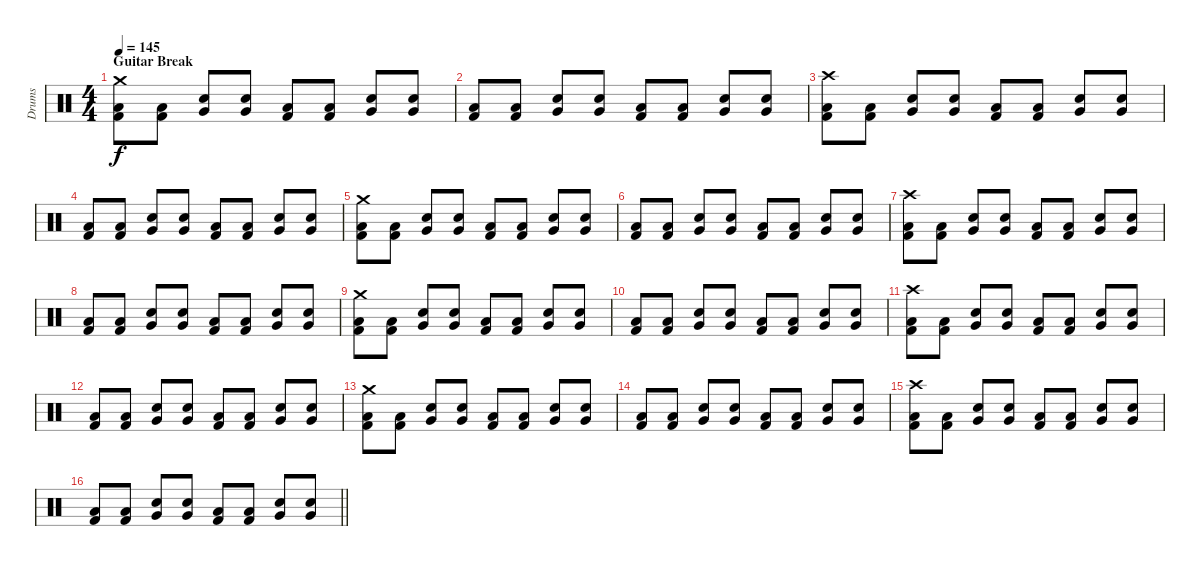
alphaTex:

\track ("Drums" "Drums") {instrument percussion}
\staff {score}
\articulation defaults
\ts (4 4)
\section ("" "Guitar Break")
\tempo 145
\clef neutral
\ks c
("Crash medium (hit)" "Kick (hit) 2" "Low Floor Tom (hit)").8{dy f} ("Kick (hit) 2" "Low Floor Tom (hit)").8 ("Snare (hit) 2" "Very Low Tom (hit)").8 ("Snare (hit) 2" "Very Low Tom (hit)").8 ("Kick (hit) 2" "Low Floor Tom (hit)").8 ("Kick (hit) 2" "Low Floor Tom (hit)").8 ("Snare (hit) 2" "Very Low Tom (hit)").8 ("Snare (hit) 2" "Very Low Tom (hit)").8 |
("Kick (hit) 2" "Low Floor Tom (hit)").8 ("Kick (hit) 2" "Low Floor Tom (hit)").8 ("Snare (hit) 2" "Very Low Tom (hit)").8 ("Snare (hit) 2" "Very Low Tom (hit)").8 ("Kick (hit) 2" "Low Floor Tom (hit)").8 ("Kick (hit) 2" "Low Floor Tom (hit)").8 ("Snare (hit) 2" "Very Low Tom (hit)").8 ("Snare (hit) 2" "Very Low Tom (hit)").8 |
("Crash high (hit)" "Kick (hit) 2" "Low Floor Tom (hit)").8 ("Kick (hit) 2" "Low Floor Tom (hit)").8 ("Snare (hit) 2" "Very Low Tom (hit)").8 ("Snare (hit) 2" "Very Low Tom (hit)").8 ("Kick (hit) 2" "Low Floor Tom (hit)").8 ("Kick (hit) 2" "Low Floor Tom (hit)").8 ("Snare (hit) 2" "Very Low Tom (hit)").8 ("Snare (hit) 2" "Very Low Tom (hit)").8 |
("Kick (hit) 2" "Low Floor Tom (hit)").8 ("Kick (hit) 2" "Low Floor Tom (hit)").8 ("Snare (hit) 2" "Very Low Tom (hit)").8 ("Snare (hit) 2" "Very Low Tom (hit)").8 ("Kick (hit) 2" "Low Floor Tom (hit)").8 ("Kick (hit) 2" "Low Floor Tom (hit)").8 ("Snare (hit) 2" "Very Low Tom (hit)").8 ("Snare (hit) 2" "Very Low Tom (hit)").8 |
("Crash medium (hit)" "Kick (hit) 2" "Low Floor Tom (hit)").8 ("Kick (hit) 2" "Low Floor Tom (hit)").8 ("Snare (hit) 2" "Very Low Tom (hit)").8 ("Snare (hit) 2" "Very Low Tom (hit)").8 ("Kick (hit) 2" "Low Floor Tom (hit)").8 ("Kick (hit) 2" "Low Floor Tom (hit)").8 ("Snare (hit) 2" "Very Low Tom (hit)").8 ("Snare (hit) 2" "Very Low Tom (hit)").8 |
("Kick (hit) 2" "Low Floor Tom (hit)").8 ("Kick (hit) 2" "Low Floor Tom (hit)").8 ("Snare (hit) 2" "Very Low Tom (hit)").8 ("Snare (hit) 2" "Very Low Tom (hit)").8 ("Kick (hit) 2" "Low Floor Tom (hit)").8 ("Kick (hit) 2" "Low Floor Tom (hit)").8 ("Snare (hit) 2" "Very Low Tom (hit)").8 ("Snare (hit) 2" "Very Low Tom (hit)").8 |
("Crash high (hit)" "Kick (hit) 2" "Low Floor Tom (hit)").8 ("Kick (hit) 2" "Low Floor Tom (hit)").8 ("Snare (hit) 2" "Very Low Tom (hit)").8 ("Snare (hit) 2" "Very Low Tom (hit)").8 ("Kick (hit) 2" "Low Floor Tom (hit)").8 ("Kick (hit) 2" "Low Floor Tom (hit)").8 ("Snare (hit) 2" "Very Low Tom (hit)").8 ("Snare (hit) 2" "Very Low Tom (hit)").8 |
("Kick (hit) 2" "Low Floor Tom (hit)").8 ("Kick (hit) 2" "Low Floor Tom (hit)").8 ("Snare (hit) 2" "Very Low Tom (hit)").8 ("Snare (hit) 2" "Very Low Tom (hit)").8 ("Kick (hit) 2" "Low Floor Tom (hit)").8 ("Kick (hit) 2" "Low Floor Tom (hit)").8 ("Snare (hit) 2" "Very Low Tom (hit)").8 ("Snare (hit) 2" "Very Low Tom (hit)").8 |
("Crash medium (hit)" "Kick (hit) 2" "Low Floor Tom (hit)").8 ("Kick (hit) 2" "Low Floor Tom (hit)").8 ("Snare (hit) 2" "Very Low Tom (hit)").8 ("Snare (hit) 2" "Very Low Tom (hit)").8 ("Kick (hit) 2" "Low Floor Tom (hit)").8 ("Kick (hit) 2" "Low Floor Tom (hit)").8 ("Snare (hit) 2" "Very Low Tom (hit)").8 ("Snare (hit) 2" "Very Low Tom (hit)").8 |
("Kick (hit) 2" "Low Floor Tom (hit)").8 ("Kick (hit) 2" "Low Floor Tom (hit)").8 ("Snare (hit) 2" "Very Low Tom (hit)").8 ("Snare (hit) 2" "Very Low Tom (hit)").8 ("Kick (hit) 2" "Low Floor Tom (hit)").8 ("Kick (hit) 2" "Low Floor Tom (hit)").8 ("Snare (hit) 2" "Very Low Tom (hit)").8 ("Snare (hit) 2" "Very Low Tom (hit)").8 |
("Crash high (hit)" "Kick (hit) 2" "Low Floor Tom (hit)").8 ("Kick (hit) 2" "Low Floor Tom (hit)").8 ("Snare (hit) 2" "Very Low Tom (hit)").8 ("Snare (hit) 2" "Very Low Tom (hit)").8 ("Kick (hit) 2" "Low Floor Tom (hit)").8 ("Kick (hit) 2" "Low Floor Tom (hit)").8 ("Snare (hit) 2" "Very Low Tom (hit)").8 ("Snare (hit) 2" "Very Low Tom (hit)").8 |
("Kick (hit) 2" "Low Floor Tom (hit)").8 ("Kick (hit) 2" "Low Floor Tom (hit)").8 ("Snare (hit) 2" "Very Low Tom (hit)").8 ("Snare (hit) 2" "Very Low Tom (hit)").8 ("Kick (hit) 2" "Low Floor Tom (hit)").8 ("Kick (hit) 2" "Low Floor Tom (hit)").8 ("Snare (hit) 2" "Very Low Tom (hit)").8 ("Snare (hit) 2" "Very Low Tom (hit)").8 |
("Crash medium (hit)" "Kick (hit) 2" "Low Floor Tom (hit)").8 ("Kick (hit) 2" "Low Floor Tom (hit)").8 ("Snare (hit) 2" "Very Low Tom (hit)").8 ("Snare (hit) 2" "Very Low Tom (hit)").8 ("Kick (hit) 2" "Low Floor Tom (hit)").8 ("Kick (hit) 2" "Low Floor Tom (hit)").8 ("Snare (hit) 2" "Very Low Tom (hit)").8 ("Snare (hit) 2" "Very Low Tom (hit)").8 |
("Kick (hit) 2" "Low Floor Tom (hit)").8 ("Kick (hit) 2" "Low Floor Tom (hit)").8 ("Snare (hit) 2" "Very Low Tom (hit)").8 ("Snare (hit) 2" "Very Low Tom (hit)").8 ("Kick (hit) 2" "Low Floor Tom (hit)").8 ("Kick (hit) 2" "Low Floor Tom (hit)").8 ("Snare (hit) 2" "Very Low Tom (hit)").8 ("Snare (hit) 2" "Very Low Tom (hit)").8 |
("Crash high (hit)" "Kick (hit) 2" "Low Floor Tom (hit)").8 ("Kick (hit) 2" "Low Floor Tom (hit)").8 ("Snare (hit) 2" "Very Low Tom (hit)").8 ("Snare (hit) 2" "Very Low Tom (hit)").8 ("Kick (hit) 2" "Low Floor Tom (hit)").8 ("Kick (hit) 2" "Low Floor Tom (hit)").8 ("Snare (hit) 2" "Very Low Tom (hit)").8 ("Snare (hit) 2" "Very Low Tom (hit)").8 |
\barLineRight lightlight
("Kick (hit) 2" "Low Floor Tom (hit)").8 ("Kick (hit) 2" "Low Floor Tom (hit)").8 ("Snare (hit) 2" "Very Low Tom (hit)").8 ("Snare (hit) 2" "Very Low Tom (hit)").8 ("Kick (hit) 2" "Low Floor Tom (hit)").8 ("Kick (hit) 2" "Low Floor Tom (hit)").8 ("Snare (hit) 2" "Very Low Tom (hit)").8 ("Snare (hit) 2" "Very Low Tom (hit)").8
